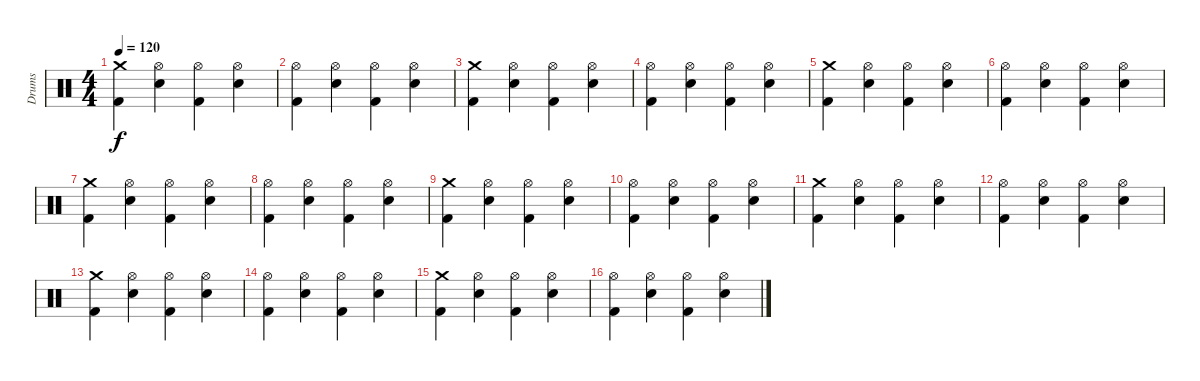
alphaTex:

\track ("Drums" "Drums") {instrument percussion}
\staff {score}
\articulation defaults
\ts (4 4)
\tempo 120
\clef neutral
\ks c
("Crash medium (hit)" "Kick (hit) 2").4{dy f} ("Hi-Hat (open)" "Snare (hit) 2").4 ("Hi-Hat (open)" "Kick (hit) 2").4 ("Hi-Hat (open)" "Snare (hit) 2").4 |
("Hi-Hat (open)" "Kick (hit) 2").4 ("Hi-Hat (open)" "Snare (hit) 2").4 ("Hi-Hat (open)" "Kick (hit) 2").4 ("Hi-Hat (open)" "Snare (hit) 2").4 |
("Crash medium (hit)" "Kick (hit) 2").4 ("Hi-Hat (open)" "Snare (hit) 2").4 ("Hi-Hat (open)" "Kick (hit) 2").4 ("Hi-Hat (open)" "Snare (hit) 2").4 |
("Hi-Hat (open)" "Kick (hit) 2").4 ("Hi-Hat (open)" "Snare (hit) 2").4 ("Hi-Hat (open)" "Kick (hit) 2").4 ("Hi-Hat (open)" "Snare (hit) 2").4 |
("Crash medium (hit)" "Kick (hit) 2").4 ("Hi-Hat (open)" "Snare (hit) 2").4 ("Hi-Hat (open)" "Kick (hit) 2").4 ("Hi-Hat (open)" "Snare (hit) 2").4 |
("Hi-Hat (open)" "Kick (hit) 2").4 ("Hi-Hat (open)" "Snare (hit) 2").4 ("Hi-Hat (open)" "Kick (hit) 2").4 ("Hi-Hat (open)" "Snare (hit) 2").4 |
("Crash medium (hit)" "Kick (hit) 2").4 ("Hi-Hat (open)" "Snare (hit) 2").4 ("Hi-Hat (open)" "Kick (hit) 2").4 ("Hi-Hat (open)" "Snare (hit) 2").4 |
("Hi-Hat (open)" "Kick (hit) 2").4 ("Hi-Hat (open)" "Snare (hit) 2").4 ("Hi-Hat (open)" "Kick (hit) 2").4 ("Hi-Hat (open)" "Snare (hit) 2").4 |
("Crash medium (hit)" "Kick (hit) 2").4 ("Hi-Hat (open)" "Snare (hit) 2").4 ("Hi-Hat (open)" "Kick (hit) 2").4 ("Hi-Hat (open)" "Snare (hit) 2").4 |
("Hi-Hat (open)" "Kick (hit) 2").4 ("Hi-Hat (open)" "Snare (hit) 2").4 ("Hi-Hat (open)" "Kick (hit) 2").4 ("Hi-Hat (open)" "Snare (hit) 2").4 |
("Crash medium (hit)" "Kick (hit) 2").4 ("Hi-Hat (open)" "Snare (hit) 2").4 ("Hi-Hat (open)" "Kick (hit) 2").4 ("Hi-Hat (open)" "Snare (hit) 2").4 |
("Hi-Hat (open)" "Kick (hit) 2").4 ("Hi-Hat (open)" "Snare (hit) 2").4 ("Hi-Hat (open)" "Kick (hit) 2").4 ("Hi-Hat (open)" "Snare (hit) 2").4 |
("Crash medium (hit)" "Kick (hit) 2").4 ("Hi-Hat (open)" "Snare (hit) 2").4 ("Hi-Hat (open)" "Kick (hit) 2").4 ("Hi-Hat (open)" "Snare (hit) 2").4 |
("Hi-Hat (open)" "Kick (hit) 2").4 ("Hi-Hat (open)" "Snare (hit) 2").4 ("Hi-Hat (open)" "Kick (hit) 2").4 ("Hi-Hat (open)" "Snare (hit) 2").4 |
("Crash medium (hit)" "Kick (hit) 2").4 ("Hi-Hat (open)" "Snare (hit) 2").4 ("Hi-Hat (open)" "Kick (hit) 2").4 ("Hi-Hat (open)" "Snare (hit) 2").4 |
("Hi-Hat (open)" "Kick (hit) 2").4 ("Hi-Hat (open)" "Snare (hit) 2").4 ("Hi-Hat (open)" "Kick (hit) 2").4 ("Hi-Hat (open)" "Snare (hit) 2").4
